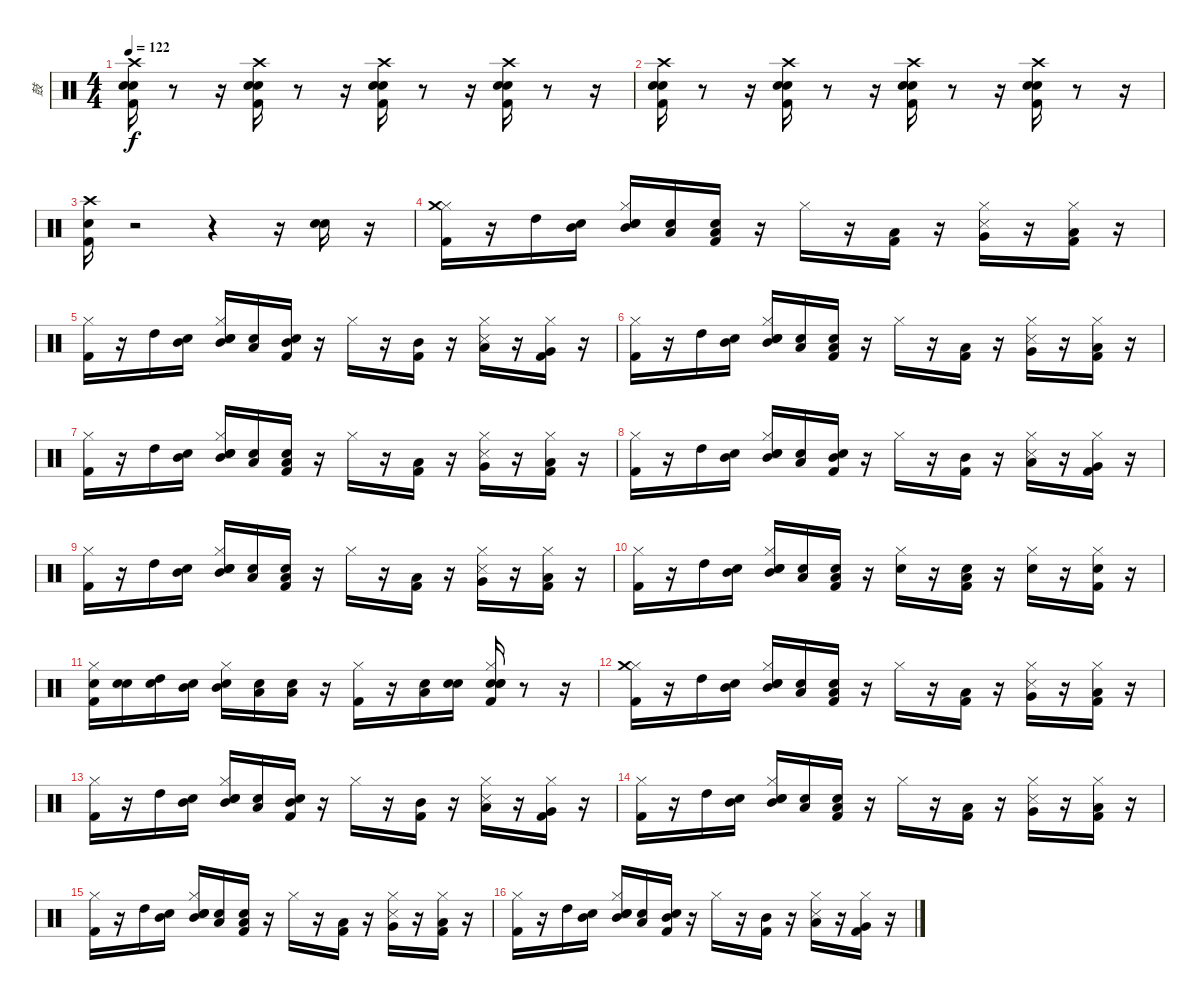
\track ("鼓" "鼓") {instrument percussion}
\staff {score}
\articulation defaults
\ts (4 4)
\tempo 122
\clef neutral
\ks c
("Crash high (hit)" "Kick (hit) 2" "Snare (hit) 2" "Electric Snare (hit)").16{dy f} r.8 r.16 ("Crash high (hit)" "Kick (hit) 2" "Snare (hit) 2" "Electric Snare (hit)").16 r.8 r.16 ("Crash high (hit)" "Kick (hit) 2" "Snare (hit) 2" "Electric Snare (hit)").16 r.8 r.16 ("Crash high (hit)" "Kick (hit) 2" "Snare (hit) 2" "Electric Snare (hit)").16 r.8 r.16 |
("Crash high (hit)" "Kick (hit) 2" "Snare (hit) 2" "Electric Snare (hit)").16 r.8 r.16 ("Crash high (hit)" "Kick (hit) 2" "Snare (hit) 2" "Electric Snare (hit)").16 r.8 r.16 ("Crash high (hit)" "Kick (hit) 2" "Snare (hit) 2" "Electric Snare (hit)").16 r.8 r.16 ("Crash high (hit)" "Kick (hit) 2" "Snare (hit) 2" "Electric Snare (hit)").16 r.8 r.16 |
("Crash high (hit)" "Kick (hit) 2" "Electric Snare (hit)").16 r.2 r.4 r.16 ("Electric Snare (hit)" "Snare (hit) 2").16 r.16 |
("Kick (hit) 2" "Hi-Hat (closed)" "Crash medium (hit)").16 r.16 "High Tom (hit)".16 ("Snare (hit)" "Mid Tom (hit)").16 ("Snare (hit)" "Snare (hit) 2" "Mid Tom (hit)" "Hi-Hat (closed)").16 ("Snare (hit)" "Low Tom (hit)").16 ("Snare (hit)" "Low Tom (hit)" "Kick (hit) 2").16 r.16 "Hi-Hat (closed)".16 r.16 ("Kick (hit) 2" "Low Tom (hit)").16 r.16 ("Very Low Tom (hit)" "Hi-Hat (closed)" "Snare (side stick) 3").16 r.16 ("Kick (hit) 2" "Low Floor Tom (hit)" "Hi-Hat (closed)").16 r.16 |
("Kick (hit) 2" "Hi-Hat (closed)").16 r.16 "High Tom (hit)".16 ("Snare (hit)" "Mid Tom (hit)").16 ("Snare (hit)" "Snare (hit) 2" "Hi-Hat (closed)" "Mid Tom (hit)").16 ("Snare (hit)" "Low Tom (hit)").16 ("Snare (hit)" "Kick (hit) 2" "Mid Tom (hit)").16 r.16 "Hi-Hat (closed)".16 r.16 ("Kick (hit) 2" "Mid Tom (hit)").16 r.16 ("Hi-Hat (closed)" "Low Tom (hit)" "Snare (side stick) 3").16 r.16 ("Kick (hit) 2" "Very Low Tom (hit)" "Hi-Hat (closed)").16 r.16 |
("Hi-Hat (closed)" "Kick (hit) 2").16 r.16 "High Tom (hit)".16 ("Snare (hit)" "Mid Tom (hit)").16 ("Snare (hit)" "Snare (hit) 2" "Hi-Hat (closed)" "Mid Tom (hit)").16 ("Snare (hit)" "Low Tom (hit)").16 ("Snare (hit)" "Low Tom (hit)" "Kick (hit) 2").16 r.16 "Hi-Hat (closed)".16 r.16 ("Kick (hit) 2" "Low Tom (hit)").16 r.16 ("Hi-Hat (closed)" "Very Low Tom (hit)" "Snare (side stick) 3").16 r.16 ("Kick (hit) 2" "Low Floor Tom (hit)" "Hi-Hat (closed)").16 r.16 |
("Hi-Hat (closed)" "Kick (hit) 2").16 r.16 "High Tom (hit)".16 ("Snare (hit)" "Mid Tom (hit)").16 ("Snare (hit)" "Snare (hit) 2" "Hi-Hat (closed)" "Mid Tom (hit)").16 ("Snare (hit)" "Low Tom (hit)").16 ("Snare (hit)" "Low Tom (hit)" "Kick (hit) 2").16 r.16 "Hi-Hat (closed)".16 r.16 ("Kick (hit) 2" "Low Tom (hit)").16 r.16 ("Hi-Hat (closed)" "Very Low Tom (hit)" "Snare (side stick) 3").16 r.16 ("Kick (hit) 2" "Low Floor Tom (hit)" "Hi-Hat (closed)").16 r.16 |
("Kick (hit) 2" "Hi-Hat (closed)").16 r.16 "High Tom (hit)".16 ("Snare (hit)" "Mid Tom (hit)").16 ("Snare (hit)" "Snare (hit) 2" "Hi-Hat (closed)" "Mid Tom (hit)").16 ("Snare (hit)" "Low Tom (hit)").16 ("Snare (hit)" "Kick (hit) 2" "Mid Tom (hit)").16 r.16 "Hi-Hat (closed)".16 r.16 ("Kick (hit) 2" "Mid Tom (hit)").16 r.16 ("Hi-Hat (closed)" "Low Tom (hit)" "Snare (side stick) 3").16 r.16 ("Kick (hit) 2" "Very Low Tom (hit)" "Hi-Hat (closed)").16 r.16 |
("Hi-Hat (closed)" "Kick (hit) 2").16 r.16 "High Tom (hit)".16 ("Snare (hit)" "Mid Tom (hit)").16 ("Snare (hit)" "Snare (hit) 2" "Hi-Hat (closed)" "Mid Tom (hit)").16 ("Snare (hit)" "Low Tom (hit)").16 ("Snare (hit)" "Low Tom (hit)" "Kick (hit) 2").16 r.16 "Hi-Hat (closed)".16 r.16 ("Kick (hit) 2" "Low Tom (hit)").16 r.16 ("Hi-Hat (closed)" "Very Low Tom (hit)" "Snare (side stick) 3").16 r.16 ("Kick (hit) 2" "Low Floor Tom (hit)" "Hi-Hat (closed)").16 r.16 |
("Hi-Hat (closed)" "Kick (hit) 2").16 r.16 "High Tom (hit)".16 ("Snare (hit)" "Mid Tom (hit)").16 ("Snare (hit)" "Snare (hit) 2" "Hi-Hat (closed)" "Mid Tom (hit)").16 ("Snare (hit)" "Low Tom (hit)").16 ("Snare (hit)" "Low Tom (hit)" "Kick (hit) 2").16 r.16 ("Electric Snare (hit)" "Hi-Hat (closed)").16 r.16 ("Electric Snare (hit)" "Kick (hit) 2" "Low Tom (hit)").16 r.16 ("Electric Snare (hit)" "Hi-Hat (closed)").16 r.16 ("Electric Snare (hit)" "Kick (hit) 2" "Hi-Hat (closed)").16 r.16 |
("Electric Snare (hit)" "Hi-Hat (closed)" "Kick (hit) 2").16 ("Snare (hit)" "Electric Snare (hit)").16 ("Snare (hit)" "High Tom (hit)").16 ("Snare (hit)" "Mid Tom (hit)").16 ("Snare (hit)" "Hi-Hat (closed)" "Mid Tom (hit)").16 ("Snare (hit)" "Low Tom (hit)").16 ("Snare (hit)" "Low Tom (hit)").16 r.16 ("Kick (hit) 2" "Hi-Hat (closed)").16 r.16 ("Electric Snare (hit)" "Low Tom (hit)").16 ("Snare (hit)" "Electric Snare (hit)").16 ("Snare (hit)" "Hand Clap (hit)" "Electric Snare (hit)" "Kick (hit) 2" "Hi-Hat (closed)").16 r.8 r.16 |
("Kick (hit) 2" "Hi-Hat (closed)" "Crash medium (hit)").16 r.16 "High Tom (hit)".16 ("Snare (hit)" "Mid Tom (hit)").16 ("Snare (hit)" "Snare (hit) 2" "Mid Tom (hit)" "Hi-Hat (closed)").16 ("Snare (hit)" "Low Tom (hit)").16 ("Snare (hit)" "Low Tom (hit)" "Kick (hit) 2").16 r.16 "Hi-Hat (closed)".16 r.16 ("Kick (hit) 2" "Low Tom (hit)").16 r.16 ("Very Low Tom (hit)" "Hi-Hat (closed)" "Snare (side stick) 3").16 r.16 ("Kick (hit) 2" "Low Floor Tom (hit)" "Hi-Hat (closed)").16 r.16 |
("Kick (hit) 2" "Hi-Hat (closed)").16 r.16 "High Tom (hit)".16 ("Snare (hit)" "Mid Tom (hit)").16 ("Snare (hit)" "Snare (hit) 2" "Hi-Hat (closed)" "Mid Tom (hit)").16 ("Snare (hit)" "Low Tom (hit)").16 ("Snare (hit)" "Kick (hit) 2" "Mid Tom (hit)").16 r.16 "Hi-Hat (closed)".16 r.16 ("Kick (hit) 2" "Mid Tom (hit)").16 r.16 ("Hi-Hat (closed)" "Low Tom (hit)" "Snare (side stick) 3").16 r.16 ("Kick (hit) 2" "Very Low Tom (hit)" "Hi-Hat (closed)").16 r.16 |
("Hi-Hat (closed)" "Kick (hit) 2").16 r.16 "High Tom (hit)".16 ("Snare (hit)" "Mid Tom (hit)").16 ("Snare (hit)" "Snare (hit) 2" "Hi-Hat (closed)" "Mid Tom (hit)").16 ("Snare (hit)" "Low Tom (hit)").16 ("Snare (hit)" "Low Tom (hit)" "Kick (hit) 2").16 r.16 "Hi-Hat (closed)".16 r.16 ("Kick (hit) 2" "Low Tom (hit)").16 r.16 ("Hi-Hat (closed)" "Very Low Tom (hit)" "Snare (side stick) 3").16 r.16 ("Kick (hit) 2" "Low Floor Tom (hit)" "Hi-Hat (closed)").16 r.16 |
("Hi-Hat (closed)" "Kick (hit) 2").16 r.16 "High Tom (hit)".16 ("Snare (hit)" "Mid Tom (hit)").16 ("Snare (hit)" "Snare (hit) 2" "Hi-Hat (closed)" "Mid Tom (hit)").16 ("Snare (hit)" "Low Tom (hit)").16 ("Snare (hit)" "Low Tom (hit)" "Kick (hit) 2").16 r.16 "Hi-Hat (closed)".16 r.16 ("Kick (hit) 2" "Low Tom (hit)").16 r.16 ("Hi-Hat (closed)" "Very Low Tom (hit)" "Snare (side stick) 3").16 r.16 ("Kick (hit) 2" "Low Floor Tom (hit)" "Hi-Hat (closed)").16 r.16 |
("Kick (hit) 2" "Hi-Hat (closed)").16 r.16 "High Tom (hit)".16 ("Snare (hit)" "Mid Tom (hit)").16 ("Snare (hit)" "Snare (hit) 2" "Hi-Hat (closed)" "Mid Tom (hit)").16 ("Snare (hit)" "Low Tom (hit)").16 ("Snare (hit)" "Kick (hit) 2" "Mid Tom (hit)").16 r.16 "Hi-Hat (closed)".16 r.16 ("Kick (hit) 2" "Mid Tom (hit)").16 r.16 ("Hi-Hat (closed)" "Low Tom (hit)" "Snare (side stick) 3").16 r.16 ("Kick (hit) 2" "Very Low Tom (hit)" "Hi-Hat (closed)").16 r.16
